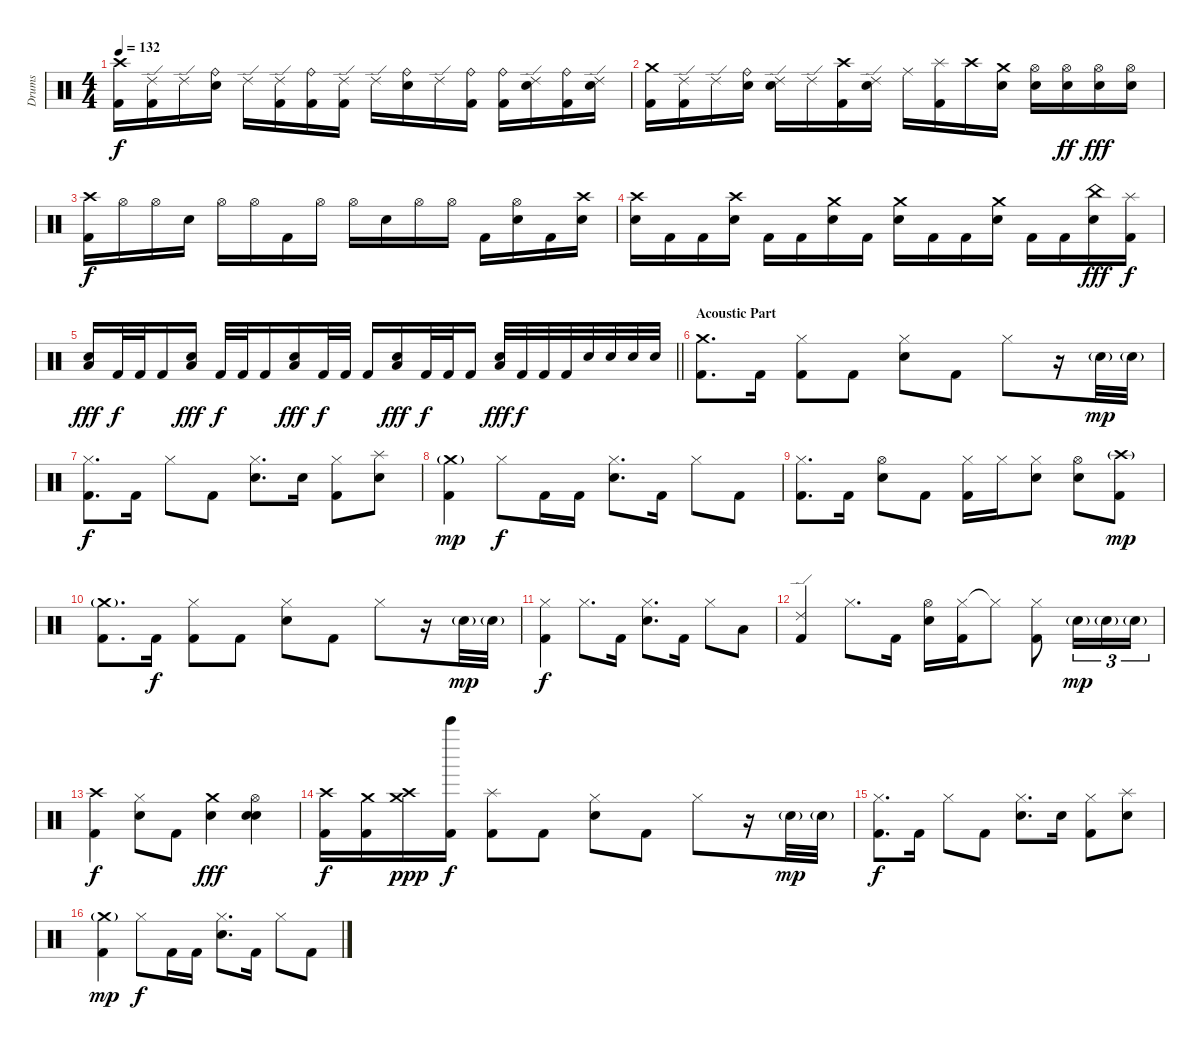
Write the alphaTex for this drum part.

\track ("Drums" "Drums") {instrument percussion}
\staff {score}
\articulation defaults
\ts (4 4)
\tempo 132
\clef neutral
\ks c
("Crash high (hit)" "Kick (hit) 2").16{dy f} ("Ride (edge) 2" "Kick (hit) 2").16 "Ride (edge) 2".16 ("Ride (bell)" "Electric Snare (hit)").16 "Ride (edge) 2".16 ("Ride (edge) 2" "Kick (hit) 2").16 ("Ride (bell)" "Kick (hit) 2").16 ("Ride (edge) 2" "Kick (hit) 2").16 "Ride (edge) 2".16 ("Ride (bell)" "Electric Snare (hit)").16 "Ride (edge) 2".16 ("Ride (bell)" "Kick (hit) 2").16 ("Ride (bell)" "Kick (hit) 2").16 ("Ride (edge) 2" "Electric Snare (hit)").16 ("Ride (bell)" "Kick (hit) 2").16 ("Ride (edge) 2" "Electric Snare (hit)").16 |
("Crash medium (hit)" "Kick (hit) 2").16 ("Ride (edge) 2" "Kick (hit) 2").16 "Ride (edge) 2".16 ("Ride (bell)" "Electric Snare (hit)").16 ("Ride (edge) 2" "Electric Snare (hit)").16 "Ride (edge) 2".16 ("Crash high (hit)" "Kick (hit) 2").16 ("Ride (edge) 2" "Electric Snare (hit)").16 "Ride (middle)".16 ("Splash (hit)" "Kick (hit) 2").16 "Crash high (hit)".16 ("Crash medium (hit)" "Electric Snare (hit)").16 ("Hi-Hat (open)" "Electric Snare (hit)").16 ("Hi-Hat (open)" "Electric Snare (hit)").16{dy ff} ("Hi-Hat (open)" "Electric Snare (hit)").16{dy fff} ("Hi-Hat (open)" "Electric Snare (hit)").16 |
("Crash high (hit)" "Kick (hit) 2").16{dy f} "Hi-Hat (open)".16 "Hi-Hat (open)".16 "Electric Snare (hit)".16 "Hi-Hat (open)".16 "Hi-Hat (open)".16 "Kick (hit) 2".16 "Hi-Hat (open)".16 "Hi-Hat (open)".16 "Electric Snare (hit)".16 "Hi-Hat (open)".16 "Hi-Hat (open)".16 "Kick (hit) 2".16 ("Hi-Hat (open)" "Electric Snare (hit)").16 "Kick (hit) 2".16 ("Crash high (hit)" "Electric Snare (hit)").16 |
("Crash high (hit)" "Electric Snare (hit)").16 "Kick (hit) 2".16 "Kick (hit) 2".16 ("Crash high (hit)" "Electric Snare (hit)").16 "Kick (hit) 2".16 "Kick (hit) 2".16 ("Crash medium (hit)" "Electric Snare (hit)").16 "Kick (hit) 2".16 ("Crash medium (hit)" "Electric Snare (hit)").16 "Kick (hit) 2".16 "Kick (hit) 2".16 ("Crash medium (hit)" "Electric Snare (hit)").16 "Kick (hit) 2".16 "Kick (hit) 2".16 ("China (hit)" "Electric Snare (hit)").16{dy fff} ("Splash (hit)" "Kick (hit) 2").16{dy f} |
\barLineRight lightlight
("Low Floor Tom (hit)" "Electric Snare (hit)").16{dy fff} "Kick (hit) 2".32{dy f} "Kick (hit) 2".32 "Kick (hit) 2".16 ("Low Floor Tom (hit)" "Electric Snare (hit)").16{dy fff} "Kick (hit) 2".32{dy f} "Kick (hit) 2".32 "Kick (hit) 2".16 ("Low Floor Tom (hit)" "Electric Snare (hit)").16{dy fff} "Kick (hit) 2".32{dy f} "Kick (hit) 2".32 "Kick (hit) 2".16 ("Low Floor Tom (hit)" "Electric Snare (hit)").16{dy fff} "Kick (hit) 2".32{dy f} "Kick (hit) 2".32 "Kick (hit) 2".16 ("Low Floor Tom (hit)" "Electric Snare (hit)").32{dy fff} "Kick (hit) 2".32{dy f} "Kick (hit) 2".32 "Kick (hit) 2".32 "Electric Snare (hit)".32 "Electric Snare (hit)".32 "Electric Snare (hit)".32 "Electric Snare (hit)".32 |
\section ("" "Acoustic Part")
("Crash medium (hit)" "Kick (hit) 2").8{d} "Kick (hit) 2".16 ("Hi-Hat (closed)" "Kick (hit) 2").8 "Kick (hit) 2".8 ("Hi-Hat (closed)" "Electric Snare (hit)").8 "Kick (hit) 2".8 "Hi-Hat (closed)".8 r.16 "Electric Snare (hit)"{g}.32{dy mp} "Electric Snare (hit)"{g}.32 |
("Hi-Hat (closed)" "Kick (hit) 2").8{d dy f} "Kick (hit) 2".16 "Hi-Hat (closed)".8 "Kick (hit) 2".8 ("Hi-Hat (closed)" "Electric Snare (hit)").8{d} "Electric Snare (hit)".16 ("Hi-Hat (closed)" "Kick (hit) 2").8 ("Splash (hit)" "Electric Snare (hit)").8 |
("Crash medium (hit)"{g} "Kick (hit) 2").4{dy mp} "Hi-Hat (closed)".8{dy f} "Kick (hit) 2".16 "Kick (hit) 2".16 ("Hi-Hat (closed)" "Electric Snare (hit)").8{d} "Kick (hit) 2".16 "Hi-Hat (closed)".8 "Kick (hit) 2".8 |
("Hi-Hat (closed)" "Kick (hit) 2").8{d} "Kick (hit) 2".16 ("Hi-Hat (open)" "Electric Snare (hit)").8 "Kick (hit) 2".8 ("Hi-Hat (closed)" "Kick (hit) 2").16 "Hi-Hat (closed)".16 ("Hi-Hat (closed)" "Electric Snare (hit)").8 ("Hi-Hat (open)" "Electric Snare (hit)").8 ("Crash high (hit)"{g} "Kick (hit) 2").8{dy mp} |
("Crash medium (hit)"{g} "Kick (hit) 2").8{d} "Kick (hit) 2".16{dy f} ("Hi-Hat (closed)" "Kick (hit) 2").8 "Kick (hit) 2".8 ("Hi-Hat (closed)" "Electric Snare (hit)").8 "Kick (hit) 2".8 "Hi-Hat (closed)".8 r.16 "Electric Snare (hit)"{g}.32{dy mp} "Electric Snare (hit)"{g}.32 |
("Hi-Hat (closed)" "Kick (hit) 2").4{dy f} "Hi-Hat (closed)".8{d} "Kick (hit) 2".16 ("Hi-Hat (closed)" "Electric Snare (hit)").8{d} "Kick (hit) 2".16 "Hi-Hat (closed)".8 "Low Tom (hit)".8 |
("Ride (edge) 2" "Kick (hit) 2").4 "Hi-Hat (closed)".8{d} "Kick (hit) 2".16 ("Hi-Hat (open)" "Electric Snare (hit)").16 ("Hi-Hat (closed)" "Kick (hit) 2").16 "Hi-Hat (closed)"{t}.8 ("Hi-Hat (closed)" "Kick (hit) 2").8 "Electric Snare (hit)"{g}.16{tu (3 2) dy mp} "Electric Snare (hit)"{g}.16{tu (3 2)} "Electric Snare (hit)"{g}.16{tu (3 2)} |
("Crash high (hit)" "Kick (hit) 2").4{dy f} ("Hi-Hat (closed)" "Electric Snare (hit)").8 "Kick (hit) 2".8 ("Crash medium (hit)" "Electric Snare (hit)").4{dy fff} ("Hi-Hat (open)" "Electric Snare (hit)" "Snare (hit) 2").4 |
("Crash high (hit)" "Kick (hit) 2").16{dy f} ("Crash medium (hit)" "Kick (hit) 2").16 ("Crash high (hit)" "Crash medium (hit)").16{dy ppp} ("Bell Tree (hit)" "Kick (hit) 2").16{dy f} ("Splash (hit)" "Kick (hit) 2").8 "Kick (hit) 2".8 ("Hi-Hat (closed)" "Electric Snare (hit)").8 "Kick (hit) 2".8 "Hi-Hat (closed)".8 r.16 "Electric Snare (hit)"{g}.32{dy mp} "Electric Snare (hit)"{g}.32 |
("Hi-Hat (closed)" "Kick (hit) 2").8{d dy f} "Kick (hit) 2".16 "Hi-Hat (closed)".8 "Kick (hit) 2".8 ("Hi-Hat (closed)" "Electric Snare (hit)").8{d} "Electric Snare (hit)".16 ("Hi-Hat (closed)" "Kick (hit) 2").8 ("Splash (hit)" "Electric Snare (hit)").8 |
("Crash medium (hit)"{g} "Kick (hit) 2").4{dy mp} "Hi-Hat (closed)".8{dy f} "Kick (hit) 2".16 "Kick (hit) 2".16 ("Hi-Hat (closed)" "Electric Snare (hit)").8{d} "Kick (hit) 2".16 "Hi-Hat (closed)".8 "Kick (hit) 2".8
